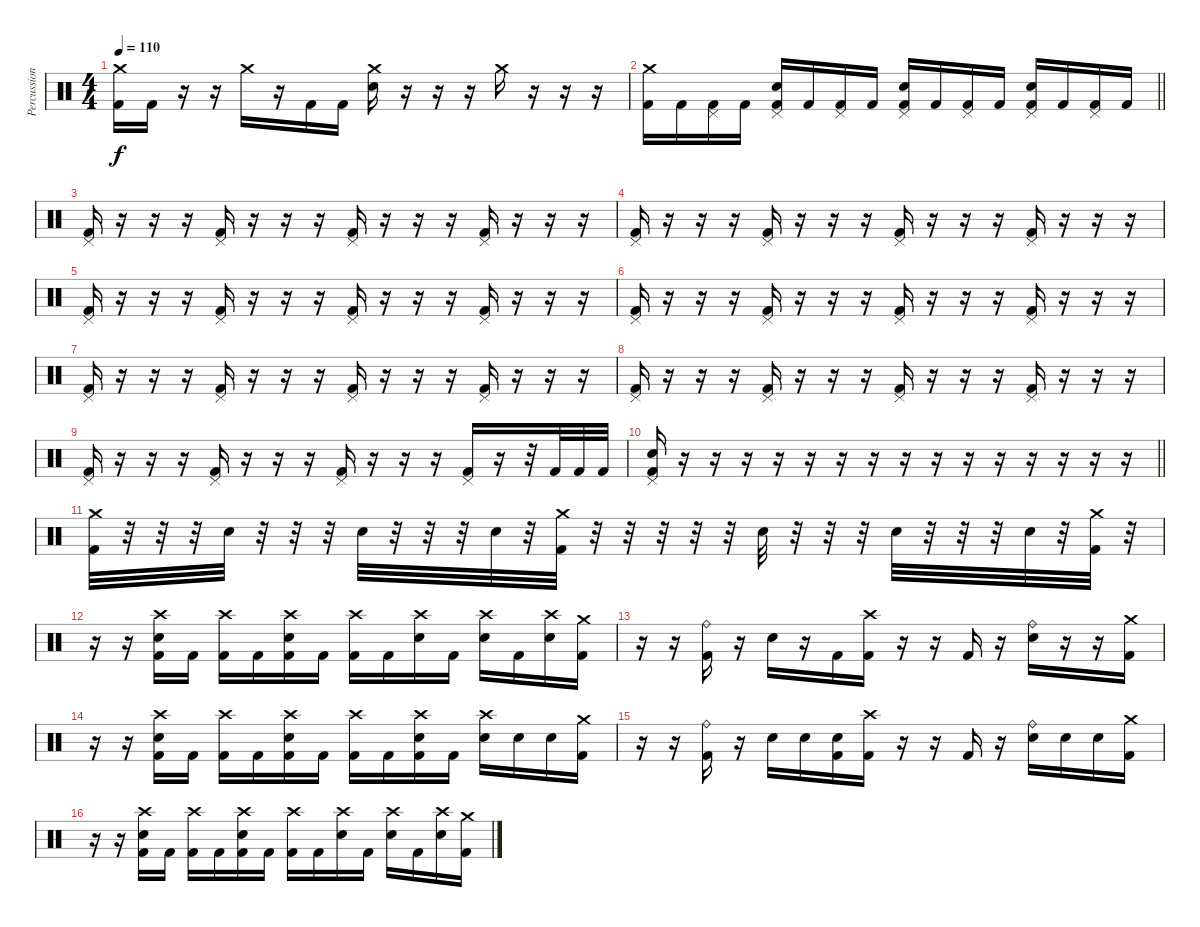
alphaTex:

\track ("Percussion (Moose)" "Percussion") {instrument percussion}
\staff {score}
\articulation defaults
\ts (4 4)
\tempo 110
\clef neutral
\ks c
("Crash medium (hit)" "Kick (hit) 2").16{dy f} "Kick (hit) 2".16 r.16 r.16 "Crash medium (hit)".16 r.16 "Kick (hit) 2".16 "Kick (hit) 2".16 ("Crash medium (hit)" "Electric Snare (hit)").16 r.16 r.16 r.16 "Crash medium (hit)".16 r.16 r.16 r.16 |
\barLineRight lightlight
("Crash medium (hit)" "Kick (hit) 2").16 "Kick (hit) 2".16 ("Pedal Hi-Hat (hit)" "Kick (hit) 2").16 "Kick (hit) 2".16 ("Pedal Hi-Hat (hit)" "Electric Snare (hit)" "Kick (hit) 2").16 "Kick (hit) 2".16 ("Pedal Hi-Hat (hit)" "Kick (hit) 2").16 "Kick (hit) 2".16 ("Pedal Hi-Hat (hit)" "Electric Snare (hit)" "Kick (hit) 2").16 "Kick (hit) 2".16 ("Pedal Hi-Hat (hit)" "Kick (hit) 2").16 "Kick (hit) 2".16 ("Pedal Hi-Hat (hit)" "Electric Snare (hit)" "Kick (hit) 2").16 "Kick (hit) 2".16 ("Pedal Hi-Hat (hit)" "Kick (hit) 2").16 "Kick (hit) 2".16 |
("Pedal Hi-Hat (hit)" "Kick (hit) 2").16 r.16 r.16 r.16 ("Pedal Hi-Hat (hit)" "Kick (hit) 2").16 r.16 r.16 r.16 ("Pedal Hi-Hat (hit)" "Kick (hit) 2").16 r.16 r.16 r.16 ("Pedal Hi-Hat (hit)" "Kick (hit) 2").16 r.16 r.16 r.16 |
("Pedal Hi-Hat (hit)" "Kick (hit) 2").16 r.16 r.16 r.16 ("Pedal Hi-Hat (hit)" "Kick (hit) 2").16 r.16 r.16 r.16 ("Pedal Hi-Hat (hit)" "Kick (hit) 2").16 r.16 r.16 r.16 ("Pedal Hi-Hat (hit)" "Kick (hit) 2").16 r.16 r.16 r.16 |
("Pedal Hi-Hat (hit)" "Kick (hit) 2").16 r.16 r.16 r.16 ("Pedal Hi-Hat (hit)" "Kick (hit) 2").16 r.16 r.16 r.16 ("Pedal Hi-Hat (hit)" "Kick (hit) 2").16 r.16 r.16 r.16 ("Pedal Hi-Hat (hit)" "Kick (hit) 2").16 r.16 r.16 r.16 |
("Pedal Hi-Hat (hit)" "Kick (hit) 2").16 r.16 r.16 r.16 ("Pedal Hi-Hat (hit)" "Kick (hit) 2").16 r.16 r.16 r.16 ("Pedal Hi-Hat (hit)" "Kick (hit) 2").16 r.16 r.16 r.16 ("Pedal Hi-Hat (hit)" "Kick (hit) 2").16 r.16 r.16 r.16 |
("Pedal Hi-Hat (hit)" "Kick (hit) 2").16 r.16 r.16 r.16 ("Pedal Hi-Hat (hit)" "Kick (hit) 2").16 r.16 r.16 r.16 ("Pedal Hi-Hat (hit)" "Kick (hit) 2").16 r.16 r.16 r.16 ("Pedal Hi-Hat (hit)" "Kick (hit) 2").16 r.16 r.16 r.16 |
("Pedal Hi-Hat (hit)" "Kick (hit) 2").16 r.16 r.16 r.16 ("Pedal Hi-Hat (hit)" "Kick (hit) 2").16 r.16 r.16 r.16 ("Pedal Hi-Hat (hit)" "Kick (hit) 2").16 r.16 r.16 r.16 ("Pedal Hi-Hat (hit)" "Kick (hit) 2").16 r.16 r.16 r.16 |
("Pedal Hi-Hat (hit)" "Kick (hit) 2").16 r.16 r.16 r.16 ("Pedal Hi-Hat (hit)" "Kick (hit) 2").16 r.16 r.16 r.16 ("Pedal Hi-Hat (hit)" "Kick (hit) 2").16 r.16 r.16 r.16 ("Pedal Hi-Hat (hit)" "Kick (hit) 2").16 r.16 r.32 "Kick (hit) 2".32 "Kick (hit) 2".32 "Kick (hit) 2".32 |
\barLineRight lightlight
("Pedal Hi-Hat (hit)" "Electric Snare (hit)" "Kick (hit) 2").16 r.16 r.16 r.16 r.16 r.16 r.16 r.16 r.16 r.16 r.16 r.16 r.16 r.16 r.16 r.16 |
("Crash medium (hit)" "Kick (hit) 2").32 r.32 r.32 r.32 "Electric Snare (hit)".32 r.32 r.32 r.32 "Electric Snare (hit)".32 r.32 r.32 r.32 "Electric Snare (hit)".32 r.32 ("Crash medium (hit)" "Kick (hit) 2").32 r.32 r.32 r.32 r.32 r.32 "Electric Snare (hit)".32 r.32 r.32 r.32 "Electric Snare (hit)".32 r.32 r.32 r.32 "Electric Snare (hit)".32 r.32 ("Crash medium (hit)" "Kick (hit) 2").32 r.32 |
r.16 r.16 ("Crash high (hit)" "Electric Snare (hit)" "Kick (hit) 2").16 "Kick (hit) 2".16 ("Crash high (hit)" "Kick (hit) 2").16 "Kick (hit) 2".16 ("Crash high (hit)" "Electric Snare (hit)" "Kick (hit) 2").16 "Kick (hit) 2".16 ("Crash high (hit)" "Kick (hit) 2").16 "Kick (hit) 2".16 ("Crash high (hit)" "Electric Snare (hit)").16 "Kick (hit) 2".16 ("Crash high (hit)" "Electric Snare (hit)").16 "Kick (hit) 2".16 ("Crash high (hit)" "Electric Snare (hit)").16 ("Crash medium (hit)" "Kick (hit) 2").16 |
r.16 r.16 ("Ride (bell)" "Kick (hit) 2").16 r.16 "Electric Snare (hit)".16 r.16 "Kick (hit) 2".16 ("Crash high (hit)" "Kick (hit) 2").16 r.16 r.16 "Kick (hit) 2".16 r.16 ("Ride (bell)" "Electric Snare (hit)").16 r.16 r.16 ("Crash medium (hit)" "Kick (hit) 2").16 |
r.16 r.16 ("Crash high (hit)" "Electric Snare (hit)" "Kick (hit) 2").16 "Kick (hit) 2".16 ("Crash high (hit)" "Kick (hit) 2").16 "Kick (hit) 2".16 ("Crash high (hit)" "Electric Snare (hit)" "Kick (hit) 2").16 "Kick (hit) 2".16 ("Crash high (hit)" "Kick (hit) 2").16 "Kick (hit) 2".16 ("Crash high (hit)" "Electric Snare (hit)" "Kick (hit) 2").16 "Kick (hit) 2".16 ("Crash high (hit)" "Electric Snare (hit)").16 "Electric Snare (hit)".16 "Electric Snare (hit)".16 ("Crash medium (hit)" "Kick (hit) 2").16 |
r.16 r.16 ("Ride (bell)" "Kick (hit) 2").16 r.16 "Electric Snare (hit)".16 "Electric Snare (hit)".16 ("Electric Snare (hit)" "Kick (hit) 2").16 ("Crash high (hit)" "Kick (hit) 2").16 r.16 r.16 "Kick (hit) 2".16 r.16 ("Ride (bell)" "Electric Snare (hit)").16 "Electric Snare (hit)".16 "Electric Snare (hit)".16 ("Crash medium (hit)" "Kick (hit) 2").16 |
r.16 r.16 ("Crash high (hit)" "Electric Snare (hit)" "Kick (hit) 2").16 "Kick (hit) 2".16 ("Crash high (hit)" "Kick (hit) 2").16 "Kick (hit) 2".16 ("Crash high (hit)" "Electric Snare (hit)" "Kick (hit) 2").16 "Kick (hit) 2".16 ("Crash high (hit)" "Kick (hit) 2").16 "Kick (hit) 2".16 ("Crash high (hit)" "Electric Snare (hit)").16 "Kick (hit) 2".16 ("Crash high (hit)" "Electric Snare (hit)").16 "Kick (hit) 2".16 ("Crash high (hit)" "Electric Snare (hit)").16 ("Crash medium (hit)" "Kick (hit) 2").16
